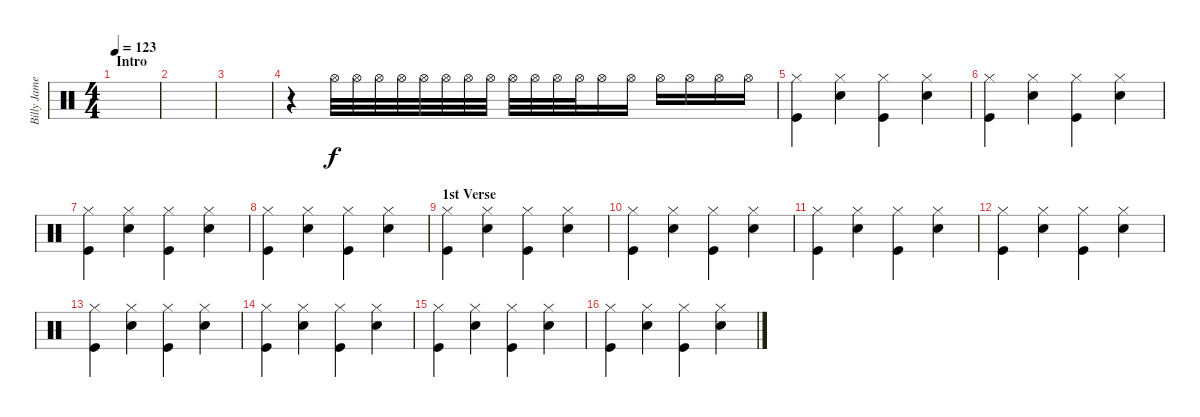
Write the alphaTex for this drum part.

\track ("Billy James (Drums)" "Billy Jame") {instrument percussion}
\staff {score}
\articulation defaults
\ts (4 4)
\section ("" "Intro")
\tempo 123
\clef neutral
\ks c
|
|
|
r.4 "Hi-Hat (open)".32 "Hi-Hat (open)".32 "Hi-Hat (open)".32 "Hi-Hat (open)".32 "Hi-Hat (open)".32 "Hi-Hat (open)".32 "Hi-Hat (open)".32 "Hi-Hat (open)".32 "Hi-Hat (open)".32 "Hi-Hat (open)".32 "Hi-Hat (open)".32 "Hi-Hat (open)".32 "Hi-Hat (open)".16 "Hi-Hat (open)".16 "Hi-Hat (open)".16 "Hi-Hat (open)".16 "Hi-Hat (open)".16 "Hi-Hat (open)".16 |
("Kick (hit)" "Hi-Hat (closed)").4{dy f} ("Snare (hit) 2" "Hi-Hat (closed)").4 ("Kick (hit)" "Hi-Hat (closed)").4 ("Snare (hit) 2" "Hi-Hat (closed)").4 |
("Kick (hit)" "Hi-Hat (closed)").4 ("Snare (hit) 2" "Hi-Hat (closed)").4 ("Kick (hit)" "Hi-Hat (closed)").4 ("Snare (hit) 2" "Hi-Hat (closed)").4 |
("Kick (hit)" "Hi-Hat (closed)").4 ("Snare (hit) 2" "Hi-Hat (closed)").4 ("Kick (hit)" "Hi-Hat (closed)").4 ("Snare (hit) 2" "Hi-Hat (closed)").4 |
("Kick (hit)" "Hi-Hat (closed)").4 ("Snare (hit) 2" "Hi-Hat (closed)").4 ("Kick (hit)" "Hi-Hat (closed)").4 ("Snare (hit) 2" "Hi-Hat (closed)").4 |
\section ("" "1st Verse")
("Kick (hit)" "Hi-Hat (closed)").4 ("Snare (hit) 2" "Hi-Hat (closed)").4 ("Kick (hit)" "Hi-Hat (closed)").4 ("Snare (hit) 2" "Hi-Hat (closed)").4 |
("Kick (hit)" "Hi-Hat (closed)").4 ("Snare (hit) 2" "Hi-Hat (closed)").4 ("Kick (hit)" "Hi-Hat (closed)").4 ("Snare (hit) 2" "Hi-Hat (closed)").4 |
("Kick (hit)" "Hi-Hat (closed)").4 ("Snare (hit) 2" "Hi-Hat (closed)").4 ("Kick (hit)" "Hi-Hat (closed)").4 ("Snare (hit) 2" "Hi-Hat (closed)").4 |
("Kick (hit)" "Hi-Hat (closed)").4 ("Snare (hit) 2" "Hi-Hat (closed)").4 ("Kick (hit)" "Hi-Hat (closed)").4 ("Snare (hit) 2" "Hi-Hat (closed)").4 |
("Kick (hit)" "Hi-Hat (closed)").4 ("Snare (hit) 2" "Hi-Hat (closed)").4 ("Kick (hit)" "Hi-Hat (closed)").4 ("Snare (hit) 2" "Hi-Hat (closed)").4 |
("Kick (hit)" "Hi-Hat (closed)").4 ("Snare (hit) 2" "Hi-Hat (closed)").4 ("Kick (hit)" "Hi-Hat (closed)").4 ("Snare (hit) 2" "Hi-Hat (closed)").4 |
("Kick (hit)" "Hi-Hat (closed)").4 ("Snare (hit) 2" "Hi-Hat (closed)").4 ("Kick (hit)" "Hi-Hat (closed)").4 ("Snare (hit) 2" "Hi-Hat (closed)").4 |
("Kick (hit)" "Hi-Hat (closed)").4 ("Snare (hit) 2" "Hi-Hat (closed)").4 ("Kick (hit)" "Hi-Hat (closed)").4 ("Snare (hit) 2" "Hi-Hat (closed)").4
